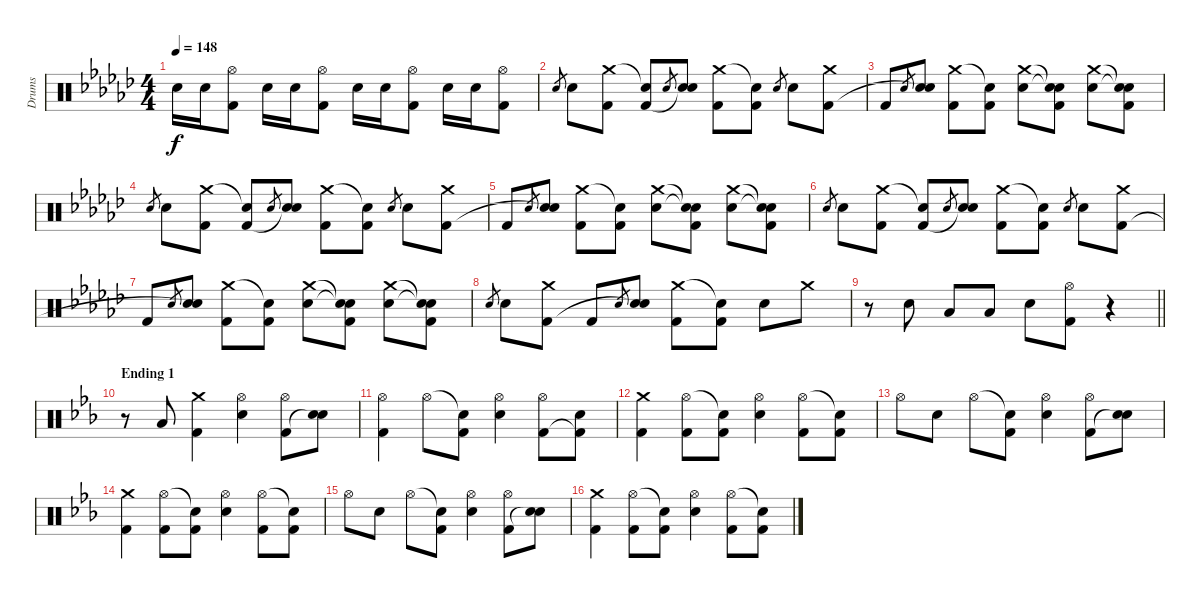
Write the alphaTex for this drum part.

\track ("Drums" "Drums") {instrument percussion}
\staff {score}
\articulation defaults
\ts (4 4)
\tempo 148
\clef neutral
\ks ebminor "Electric Snare (hit)".16{dy f} "Electric Snare (hit)".16
("Hi-Hat (open)" "Kick (hit) 2").8 "Electric Snare (hit)".16 "Electric Snare (hit)".16 ("Hi-Hat (open)" "Kick (hit) 2").8 "Electric Snare (hit)".16 "Electric Snare (hit)".16 ("Hi-Hat (open)" "Kick (hit) 2").8 "Electric Snare (hit)".16 "Electric Snare (hit)".16 ("Hi-Hat (open)" "Kick (hit) 2").8 |
"Electric Snare (hit)".8{gr} "Electric Snare (hit)".8 ("Crash medium (hit)" "Kick (hit) 2").8 ("Snare (hit)"{t} "Kick (hit) 2").8 "Electric Snare (hit)".8{gr} ("Electric Snare (hit)" "Snare (hit)"{t}).8 ("Crash medium (hit)" "Kick (hit) 2").8 ("Snare (hit)"{t} "Kick (hit) 2").8 "Electric Snare (hit)".8{gr} "Electric Snare (hit)".8 ("Crash medium (hit)" "Kick (hit) 2").8 |
"Kick (hit) 2".8 "Electric Snare (hit)".8{gr} ("Electric Snare (hit)" "Snare (hit)"{t}).8 ("Crash medium (hit)" "Kick (hit) 2").8 ("Snare (hit)"{t} "Kick (hit) 2").8 ("Crash medium (hit)" "Electric Snare (hit)").8 ("Snare (hit)"{t} "Snare (hit)"{t} "Kick (hit) 2").8 ("Crash medium (hit)" "Electric Snare (hit)").8 ("Snare (hit)"{t} "Snare (hit)"{t} "Kick (hit) 2").8 |
"Electric Snare (hit)".8{gr} "Electric Snare (hit)".8 ("Crash medium (hit)" "Kick (hit) 2").8 ("Snare (hit)"{t} "Kick (hit) 2").8 "Electric Snare (hit)".8{gr} ("Electric Snare (hit)" "Snare (hit)"{t}).8 ("Crash medium (hit)" "Kick (hit) 2").8 ("Snare (hit)"{t} "Kick (hit) 2").8 "Electric Snare (hit)".8{gr} "Electric Snare (hit)".8 ("Crash medium (hit)" "Kick (hit) 2").8 |
"Kick (hit) 2".8 "Electric Snare (hit)".8{gr} ("Electric Snare (hit)" "Snare (hit)"{t}).8 ("Crash medium (hit)" "Kick (hit) 2").8 ("Snare (hit)"{t} "Kick (hit) 2").8 ("Crash medium (hit)" "Electric Snare (hit)").8 ("Snare (hit)"{t} "Snare (hit)"{t} "Kick (hit) 2").8 ("Crash medium (hit)" "Electric Snare (hit)").8 ("Snare (hit)"{t} "Snare (hit)"{t} "Kick (hit) 2").8 |
"Electric Snare (hit)".8{gr} "Electric Snare (hit)".8 ("Crash medium (hit)" "Kick (hit) 2").8 ("Snare (hit)"{t} "Kick (hit) 2").8 "Electric Snare (hit)".8{gr} ("Electric Snare (hit)" "Snare (hit)"{t}).8 ("Crash medium (hit)" "Kick (hit) 2").8 ("Snare (hit)"{t} "Kick (hit) 2").8 "Electric Snare (hit)".8{gr} "Electric Snare (hit)".8 ("Crash medium (hit)" "Kick (hit) 2").8 |
"Kick (hit) 2".8 "Electric Snare (hit)".8{gr} ("Electric Snare (hit)" "Snare (hit)"{t}).8 ("Crash medium (hit)" "Kick (hit) 2").8 ("Snare (hit)"{t} "Kick (hit) 2").8 ("Crash medium (hit)" "Electric Snare (hit)").8 ("Snare (hit)"{t} "Snare (hit)"{t} "Kick (hit) 2").8 ("Crash medium (hit)" "Electric Snare (hit)").8 ("Snare (hit)"{t} "Snare (hit)"{t} "Kick (hit) 2").8 |
"Electric Snare (hit)".8{gr} "Electric Snare (hit)".8 ("Crash medium (hit)" "Kick (hit) 2").8 "Kick (hit) 2".8 "Electric Snare (hit)".8{gr} ("Electric Snare (hit)" "Snare (hit)"{t}).8 ("Crash medium (hit)" "Kick (hit) 2").8 ("Snare (hit)"{t} "Kick (hit) 2").8 "Electric Snare (hit)".8 "Crash medium (hit)".8 |
\barLineRight lightlight
r.8 "Electric Snare (hit)".8 "Low Floor Tom (hit)".8 "Low Floor Tom (hit)".8 "Electric Snare (hit)".8 ("Hi-Hat (open)" "Kick (hit) 2").8 r.4 |
\section ("" "Ending 1")
\ks eb
r.8 "Low Floor Tom (hit)".8 ("Crash medium (hit)" "Kick (hit) 2").4 ("Hi-Hat (open)" "Electric Snare (hit)").4 ("Hi-Hat (open)" "Kick (hit) 2").8 ("Electric Snare (hit)" "Snare (hit)"{t}).8 |
("Hi-Hat (open)" "Kick (hit) 2").4 "Hi-Hat (open)".8 ("Snare (hit)"{t} "Kick (hit) 2").8 ("Hi-Hat (open)" "Electric Snare (hit)").4 ("Hi-Hat (open)" "Kick (hit) 2").8 ("Electric Snare (hit)" "Kick (hit) 2"{t}).8 |
("Crash medium (hit)" "Kick (hit) 2").4 ("Hi-Hat (open)" "Kick (hit) 2").8 ("Snare (hit)"{t} "Kick (hit) 2").8 ("Hi-Hat (open)" "Electric Snare (hit)").4 ("Hi-Hat (open)" "Kick (hit) 2").8 ("Snare (hit)"{t} "Kick (hit) 2").8 |
"Hi-Hat (open)".8 "Electric Snare (hit)".8 "Hi-Hat (open)".8 ("Snare (hit)"{t} "Kick (hit) 2").8 ("Hi-Hat (open)" "Electric Snare (hit)").4 ("Hi-Hat (open)" "Kick (hit) 2").8 ("Electric Snare (hit)" "Snare (hit)"{t}).8 |
("Crash medium (hit)" "Kick (hit) 2").4 ("Hi-Hat (open)" "Kick (hit) 2").8 ("Snare (hit)"{t} "Kick (hit) 2").8 ("Hi-Hat (open)" "Electric Snare (hit)").4 ("Hi-Hat (open)" "Kick (hit) 2").8 ("Snare (hit)"{t} "Kick (hit) 2").8 |
"Hi-Hat (open)".8 "Electric Snare (hit)".8 "Hi-Hat (open)".8 ("Snare (hit)"{t} "Kick (hit) 2").8 ("Hi-Hat (open)" "Electric Snare (hit)").4 ("Hi-Hat (open)" "Kick (hit) 2").8 ("Electric Snare (hit)" "Snare (hit)"{t}).8 |
("Crash medium (hit)" "Kick (hit) 2").4 ("Hi-Hat (open)" "Kick (hit) 2").8 ("Snare (hit)"{t} "Kick (hit) 2").8 ("Hi-Hat (open)" "Electric Snare (hit)").4 ("Hi-Hat (open)" "Kick (hit) 2").8 ("Snare (hit)"{t} "Kick (hit) 2").8
